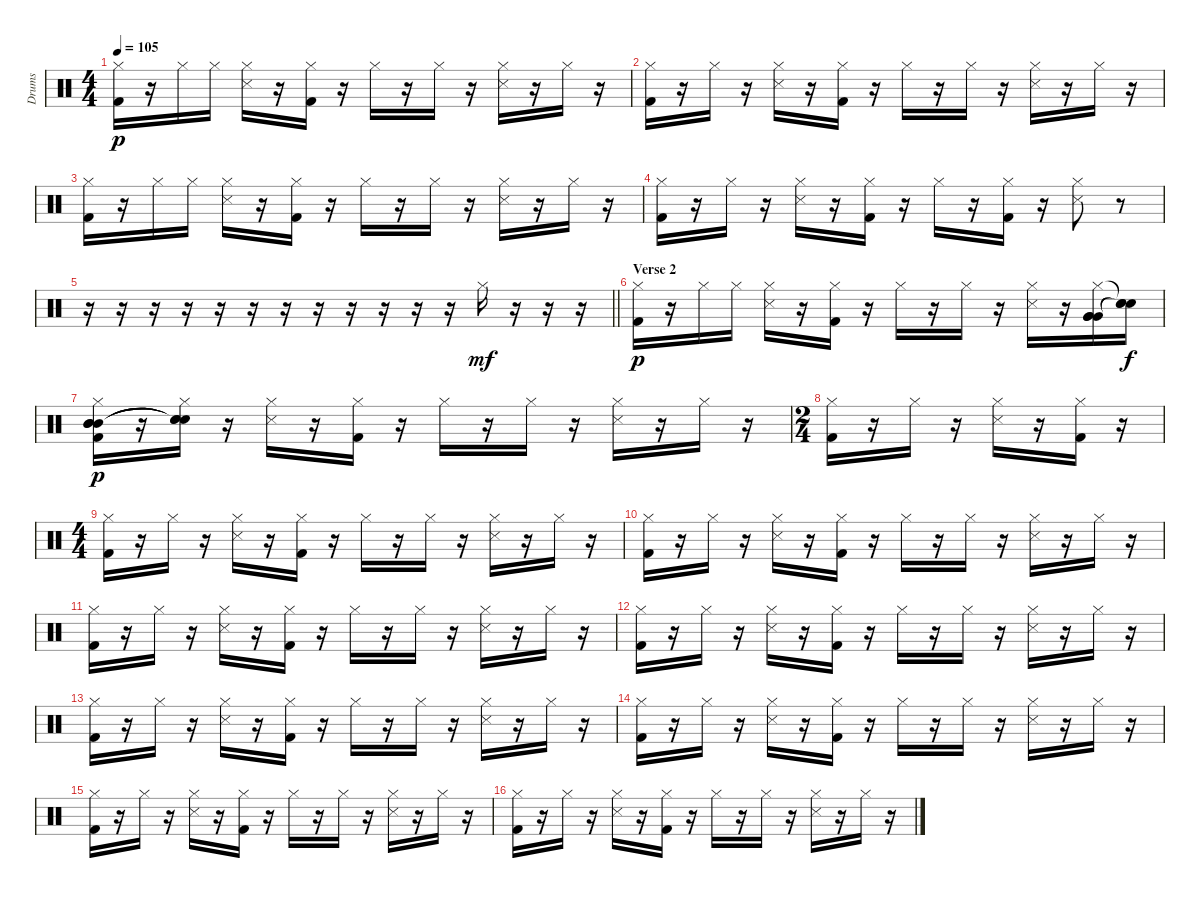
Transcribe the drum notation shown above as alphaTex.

\track ("Drums" "Drums") {instrument percussion}
\staff {score}
\articulation defaults
\ts (4 4)
\tempo 105
\clef neutral
\ks c
("Hi-Hat (closed)" "Kick (hit) 2").16{dy p} r.16 "Hi-Hat (closed)".16 "Hi-Hat (closed)".16 ("Hi-Hat (closed)" "Snare (side stick) 3").16 r.16 ("Hi-Hat (closed)" "Kick (hit) 2").16 r.16 "Hi-Hat (closed)".16 r.16 "Hi-Hat (closed)".16 r.16 ("Hi-Hat (closed)" "Snare (side stick) 3").16 r.16 "Hi-Hat (closed)".16 r.16 |
("Hi-Hat (closed)" "Kick (hit) 2").16 r.16 "Hi-Hat (closed)".16 r.16 ("Hi-Hat (closed)" "Snare (side stick) 3").16 r.16 ("Hi-Hat (closed)" "Kick (hit) 2").16 r.16 "Hi-Hat (closed)".16 r.16 "Hi-Hat (closed)".16 r.16 ("Hi-Hat (closed)" "Snare (side stick) 3").16 r.16 "Hi-Hat (closed)".16 r.16 |
("Hi-Hat (closed)" "Kick (hit) 2").16 r.16 "Hi-Hat (closed)".16 "Hi-Hat (closed)".16 ("Hi-Hat (closed)" "Snare (side stick) 3").16 r.16 ("Hi-Hat (closed)" "Kick (hit) 2").16 r.16 "Hi-Hat (closed)".16 r.16 "Hi-Hat (closed)".16 r.16 ("Hi-Hat (closed)" "Snare (side stick) 3").16 r.16 "Hi-Hat (closed)".16 r.16 |
("Hi-Hat (closed)" "Kick (hit) 2").16 r.16 "Hi-Hat (closed)".16 r.16 ("Hi-Hat (closed)" "Snare (side stick) 3").16 r.16 ("Hi-Hat (closed)" "Kick (hit) 2").16 r.16 "Hi-Hat (closed)".16 r.16 ("Hi-Hat (closed)" "Kick (hit) 2").16 r.16 ("Hi-Hat (closed)" "Snare (side stick) 3").8 r.8 |
\barLineRight lightlight
r.16 r.16 r.16 r.16 r.16 r.16 r.16 r.16 r.16 r.16 r.16 r.16 "Hi-Hat (closed)".16{dy mf} r.16 r.16 r.16 |
\section ("" "Verse 2")
("Hi-Hat (closed)" "Kick (hit) 2").16{dy p} r.16 "Hi-Hat (closed)".16 "Hi-Hat (closed)".16 ("Hi-Hat (closed)" "Snare (side stick) 3").16 r.16 ("Hi-Hat (closed)" "Kick (hit) 2").16 r.16 "Hi-Hat (closed)".16 r.16 "Hi-Hat (closed)".16 r.16 ("Hi-Hat (closed)" "Snare (side stick) 3").16 r.16 ("Hi-Hat (closed)" "Very Low Tom (hit)" "Very Low Tom (hit)" "Very Low Tom (hit)").16 ("Snare (hit)"{t} "Snare (hit)"{t} "Snare (hit)"{t}).16{dy f} |
("Hi-Hat (closed)" "Mid Tom (hit)" "Mid Tom (hit)" "Mid Tom (hit)" "Kick (hit) 2").16{dy p} r.16 ("Hi-Hat (closed)" "Snare (hit)"{t} "Snare (hit)"{t} "Snare (hit)"{t}).16 r.16 ("Hi-Hat (closed)" "Snare (side stick) 3").16 r.16 ("Hi-Hat (closed)" "Kick (hit) 2").16 r.16 "Hi-Hat (closed)".16 r.16 "Hi-Hat (closed)".16 r.16 ("Hi-Hat (closed)" "Snare (side stick) 3").16 r.16 "Hi-Hat (closed)".16 r.16 |
\ts (2 4)
("Hi-Hat (closed)" "Kick (hit) 2").16 r.16 "Hi-Hat (closed)".16 r.16 ("Hi-Hat (closed)" "Snare (side stick) 3").16 r.16 ("Hi-Hat (closed)" "Kick (hit) 2").16 r.16 |
\ts (4 4)
("Hi-Hat (closed)" "Kick (hit) 2").16 r.16 "Hi-Hat (closed)".16 r.16 ("Hi-Hat (closed)" "Snare (side stick) 3").16 r.16 ("Hi-Hat (closed)" "Kick (hit) 2").16 r.16 "Hi-Hat (closed)".16 r.16 "Hi-Hat (closed)".16 r.16 ("Hi-Hat (closed)" "Snare (side stick) 3").16 r.16 "Hi-Hat (closed)".16 r.16 |
("Hi-Hat (closed)" "Kick (hit) 2").16 r.16 "Hi-Hat (closed)".16 r.16 ("Hi-Hat (closed)" "Snare (side stick) 3").16 r.16 ("Hi-Hat (closed)" "Kick (hit) 2").16 r.16 "Hi-Hat (closed)".16 r.16 "Hi-Hat (closed)".16 r.16 ("Hi-Hat (closed)" "Snare (side stick) 3").16 r.16 "Hi-Hat (closed)".16 r.16 |
("Hi-Hat (closed)" "Kick (hit) 2").16 r.16 "Hi-Hat (closed)".16 r.16 ("Hi-Hat (closed)" "Snare (side stick) 3").16 r.16 ("Hi-Hat (closed)" "Kick (hit) 2").16 r.16 "Hi-Hat (closed)".16 r.16 "Hi-Hat (closed)".16 r.16 ("Hi-Hat (closed)" "Snare (side stick) 3").16 r.16 "Hi-Hat (closed)".16 r.16 |
("Hi-Hat (closed)" "Kick (hit) 2").16 r.16 "Hi-Hat (closed)".16 r.16 ("Hi-Hat (closed)" "Snare (side stick) 3").16 r.16 ("Hi-Hat (closed)" "Kick (hit) 2").16 r.16 "Hi-Hat (closed)".16 r.16 "Hi-Hat (closed)".16 r.16 ("Hi-Hat (closed)" "Snare (side stick) 3").16 r.16 "Hi-Hat (closed)".16 r.16 |
("Hi-Hat (closed)" "Kick (hit) 2").16 r.16 "Hi-Hat (closed)".16 r.16 ("Hi-Hat (closed)" "Snare (side stick) 3").16 r.16 ("Hi-Hat (closed)" "Kick (hit) 2").16 r.16 "Hi-Hat (closed)".16 r.16 "Hi-Hat (closed)".16 r.16 ("Hi-Hat (closed)" "Snare (side stick) 3").16 r.16 "Hi-Hat (closed)".16 r.16 |
("Hi-Hat (closed)" "Kick (hit) 2").16 r.16 "Hi-Hat (closed)".16 r.16 ("Hi-Hat (closed)" "Snare (side stick) 3").16 r.16 ("Hi-Hat (closed)" "Kick (hit) 2").16 r.16 "Hi-Hat (closed)".16 r.16 "Hi-Hat (closed)".16 r.16 ("Hi-Hat (closed)" "Snare (side stick) 3").16 r.16 "Hi-Hat (closed)".16 r.16 |
("Hi-Hat (closed)" "Kick (hit) 2").16 r.16 "Hi-Hat (closed)".16 r.16 ("Hi-Hat (closed)" "Snare (side stick) 3").16 r.16 ("Hi-Hat (closed)" "Kick (hit) 2").16 r.16 "Hi-Hat (closed)".16 r.16 "Hi-Hat (closed)".16 r.16 ("Hi-Hat (closed)" "Snare (side stick) 3").16 r.16 "Hi-Hat (closed)".16 r.16 |
("Hi-Hat (closed)" "Kick (hit) 2").16 r.16 "Hi-Hat (closed)".16 r.16 ("Hi-Hat (closed)" "Snare (side stick) 3").16 r.16 ("Hi-Hat (closed)" "Kick (hit) 2").16 r.16 "Hi-Hat (closed)".16 r.16 "Hi-Hat (closed)".16 r.16 ("Hi-Hat (closed)" "Snare (side stick) 3").16 r.16 "Hi-Hat (closed)".16 r.16
